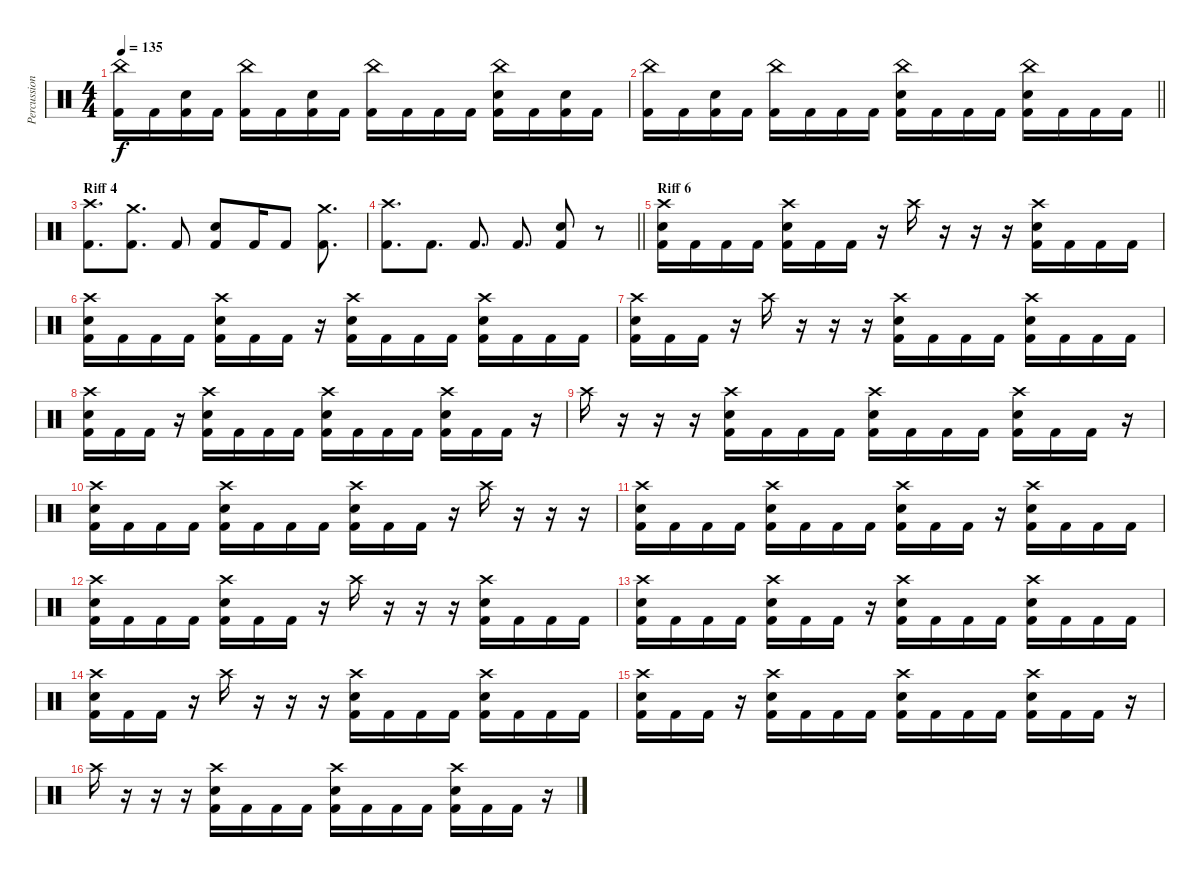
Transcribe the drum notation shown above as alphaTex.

\track ("Percussion" "Percussion") {instrument percussion}
\staff {score}
\articulation defaults
\ts (4 4)
\tempo 135
\clef neutral
\ks c
("China (hit)" "Kick (hit) 2").16{dy f} "Kick (hit) 2".16 ("Snare (hit) 2" "Kick (hit) 2").16 "Kick (hit) 2".16 ("China (hit)" "Kick (hit) 2").16 "Kick (hit) 2".16 ("Snare (hit) 2" "Kick (hit) 2").16 "Kick (hit) 2".16 ("China (hit)" "Kick (hit) 2").16 "Kick (hit) 2".16 "Kick (hit) 2".16 "Kick (hit) 2".16 ("China (hit)" "Snare (hit) 2" "Kick (hit) 2").16 "Kick (hit) 2".16 ("Snare (hit) 2" "Kick (hit) 2").16 "Kick (hit) 2".16 |
\barLineRight lightlight
("China (hit)" "Kick (hit) 2").16 "Kick (hit) 2".16 ("Snare (hit) 2" "Kick (hit) 2").16 "Kick (hit) 2".16 ("China (hit)" "Kick (hit) 2").16 "Kick (hit) 2".16 "Kick (hit) 2".16 "Kick (hit) 2".16 ("China (hit)" "Snare (hit) 2" "Kick (hit) 2").16 "Kick (hit) 2".16 "Kick (hit) 2".16 "Kick (hit) 2".16 ("China (hit)" "Snare (hit) 2" "Kick (hit) 2").16 "Kick (hit) 2".16 "Kick (hit) 2".16 "Kick (hit) 2".16 |
\section ("" "Riff 4")
("Crash high (hit)" "Kick (hit) 2").8{d volume 11} ("Crash medium (hit)" "Kick (hit) 2").8{d} "Kick (hit) 2".8 ("Snare (hit) 2" "Kick (hit) 2").8 "Kick (hit) 2".16 "Kick (hit) 2".8 ("Crash medium (hit)" "Kick (hit) 2").8{d} |
\barLineRight lightlight
("Crash high (hit)" "Kick (hit) 2").8{d} "Kick (hit) 2".8{d} "Kick (hit) 2".8{d} "Kick (hit) 2".8{d} ("Snare (hit) 2" "Kick (hit) 2").8 r.8 |
\section ("" "Riff 6")
("Crash high (hit)" "Snare (hit) 2" "Kick (hit) 2").16 "Kick (hit) 2".16 "Kick (hit) 2".16 "Kick (hit) 2".16 ("Crash high (hit)" "Snare (hit) 2" "Kick (hit) 2").16 "Kick (hit) 2".16 "Kick (hit) 2".16 r.16 "Crash high (hit)".16 r.16 r.16 r.16 ("Crash high (hit)" "Snare (hit) 2" "Kick (hit) 2").16 "Kick (hit) 2".16 "Kick (hit) 2".16 "Kick (hit) 2".16 |
("Crash high (hit)" "Snare (hit) 2" "Kick (hit) 2").16 "Kick (hit) 2".16 "Kick (hit) 2".16 "Kick (hit) 2".16 ("Crash high (hit)" "Snare (hit) 2" "Kick (hit) 2").16 "Kick (hit) 2".16 "Kick (hit) 2".16 r.16 ("Crash high (hit)" "Snare (hit) 2" "Kick (hit) 2").16 "Kick (hit) 2".16 "Kick (hit) 2".16 "Kick (hit) 2".16 ("Crash high (hit)" "Snare (hit) 2" "Kick (hit) 2").16 "Kick (hit) 2".16 "Kick (hit) 2".16 "Kick (hit) 2".16 |
("Crash high (hit)" "Snare (hit) 2" "Kick (hit) 2").16 "Kick (hit) 2".16 "Kick (hit) 2".16 r.16 "Crash high (hit)".16 r.16 r.16 r.16 ("Crash high (hit)" "Snare (hit) 2" "Kick (hit) 2").16 "Kick (hit) 2".16 "Kick (hit) 2".16 "Kick (hit) 2".16 ("Crash high (hit)" "Snare (hit) 2" "Kick (hit) 2").16 "Kick (hit) 2".16 "Kick (hit) 2".16 "Kick (hit) 2".16 |
("Crash high (hit)" "Snare (hit) 2" "Kick (hit) 2").16 "Kick (hit) 2".16 "Kick (hit) 2".16 r.16 ("Crash high (hit)" "Snare (hit) 2" "Kick (hit) 2").16 "Kick (hit) 2".16 "Kick (hit) 2".16 "Kick (hit) 2".16 ("Crash high (hit)" "Snare (hit) 2" "Kick (hit) 2").16 "Kick (hit) 2".16 "Kick (hit) 2".16 "Kick (hit) 2".16 ("Crash high (hit)" "Snare (hit) 2" "Kick (hit) 2").16 "Kick (hit) 2".16 "Kick (hit) 2".16 r.16 |
"Crash high (hit)".16 r.16 r.16 r.16 ("Crash high (hit)" "Snare (hit) 2" "Kick (hit) 2").16 "Kick (hit) 2".16 "Kick (hit) 2".16 "Kick (hit) 2".16 ("Crash high (hit)" "Snare (hit) 2" "Kick (hit) 2").16 "Kick (hit) 2".16 "Kick (hit) 2".16 "Kick (hit) 2".16 ("Crash high (hit)" "Snare (hit) 2" "Kick (hit) 2").16 "Kick (hit) 2".16 "Kick (hit) 2".16 r.16 |
("Crash high (hit)" "Snare (hit) 2" "Kick (hit) 2").16 "Kick (hit) 2".16 "Kick (hit) 2".16 "Kick (hit) 2".16 ("Crash high (hit)" "Snare (hit) 2" "Kick (hit) 2").16 "Kick (hit) 2".16 "Kick (hit) 2".16 "Kick (hit) 2".16 ("Crash high (hit)" "Snare (hit) 2" "Kick (hit) 2").16 "Kick (hit) 2".16 "Kick (hit) 2".16 r.16 "Crash high (hit)".16 r.16 r.16 r.16 |
("Crash high (hit)" "Snare (hit) 2" "Kick (hit) 2").16 "Kick (hit) 2".16 "Kick (hit) 2".16 "Kick (hit) 2".16 ("Crash high (hit)" "Snare (hit) 2" "Kick (hit) 2").16 "Kick (hit) 2".16 "Kick (hit) 2".16 "Kick (hit) 2".16 ("Crash high (hit)" "Snare (hit) 2" "Kick (hit) 2").16 "Kick (hit) 2".16 "Kick (hit) 2".16 r.16 ("Crash high (hit)" "Snare (hit) 2" "Kick (hit) 2").16 "Kick (hit) 2".16 "Kick (hit) 2".16 "Kick (hit) 2".16 |
("Crash high (hit)" "Snare (hit) 2" "Kick (hit) 2").16 "Kick (hit) 2".16 "Kick (hit) 2".16 "Kick (hit) 2".16 ("Crash high (hit)" "Snare (hit) 2" "Kick (hit) 2").16 "Kick (hit) 2".16 "Kick (hit) 2".16 r.16 "Crash high (hit)".16 r.16 r.16 r.16 ("Crash high (hit)" "Snare (hit) 2" "Kick (hit) 2").16 "Kick (hit) 2".16 "Kick (hit) 2".16 "Kick (hit) 2".16 |
("Crash high (hit)" "Snare (hit) 2" "Kick (hit) 2").16 "Kick (hit) 2".16 "Kick (hit) 2".16 "Kick (hit) 2".16 ("Crash high (hit)" "Snare (hit) 2" "Kick (hit) 2").16 "Kick (hit) 2".16 "Kick (hit) 2".16 r.16 ("Crash high (hit)" "Snare (hit) 2" "Kick (hit) 2").16 "Kick (hit) 2".16 "Kick (hit) 2".16 "Kick (hit) 2".16 ("Crash high (hit)" "Snare (hit) 2" "Kick (hit) 2").16 "Kick (hit) 2".16 "Kick (hit) 2".16 "Kick (hit) 2".16 |
("Crash high (hit)" "Snare (hit) 2" "Kick (hit) 2").16 "Kick (hit) 2".16 "Kick (hit) 2".16 r.16 "Crash high (hit)".16 r.16 r.16 r.16 ("Crash high (hit)" "Snare (hit) 2" "Kick (hit) 2").16 "Kick (hit) 2".16 "Kick (hit) 2".16 "Kick (hit) 2".16 ("Crash high (hit)" "Snare (hit) 2" "Kick (hit) 2").16 "Kick (hit) 2".16 "Kick (hit) 2".16 "Kick (hit) 2".16 |
("Crash high (hit)" "Snare (hit) 2" "Kick (hit) 2").16 "Kick (hit) 2".16 "Kick (hit) 2".16 r.16 ("Crash high (hit)" "Snare (hit) 2" "Kick (hit) 2").16 "Kick (hit) 2".16 "Kick (hit) 2".16 "Kick (hit) 2".16 ("Crash high (hit)" "Snare (hit) 2" "Kick (hit) 2").16 "Kick (hit) 2".16 "Kick (hit) 2".16 "Kick (hit) 2".16 ("Crash high (hit)" "Snare (hit) 2" "Kick (hit) 2").16 "Kick (hit) 2".16 "Kick (hit) 2".16 r.16 |
"Crash high (hit)".16 r.16 r.16 r.16 ("Crash high (hit)" "Snare (hit) 2" "Kick (hit) 2").16 "Kick (hit) 2".16 "Kick (hit) 2".16 "Kick (hit) 2".16 ("Crash high (hit)" "Snare (hit) 2" "Kick (hit) 2").16 "Kick (hit) 2".16 "Kick (hit) 2".16 "Kick (hit) 2".16 ("Crash high (hit)" "Snare (hit) 2" "Kick (hit) 2").16 "Kick (hit) 2".16 "Kick (hit) 2".16 r.16
